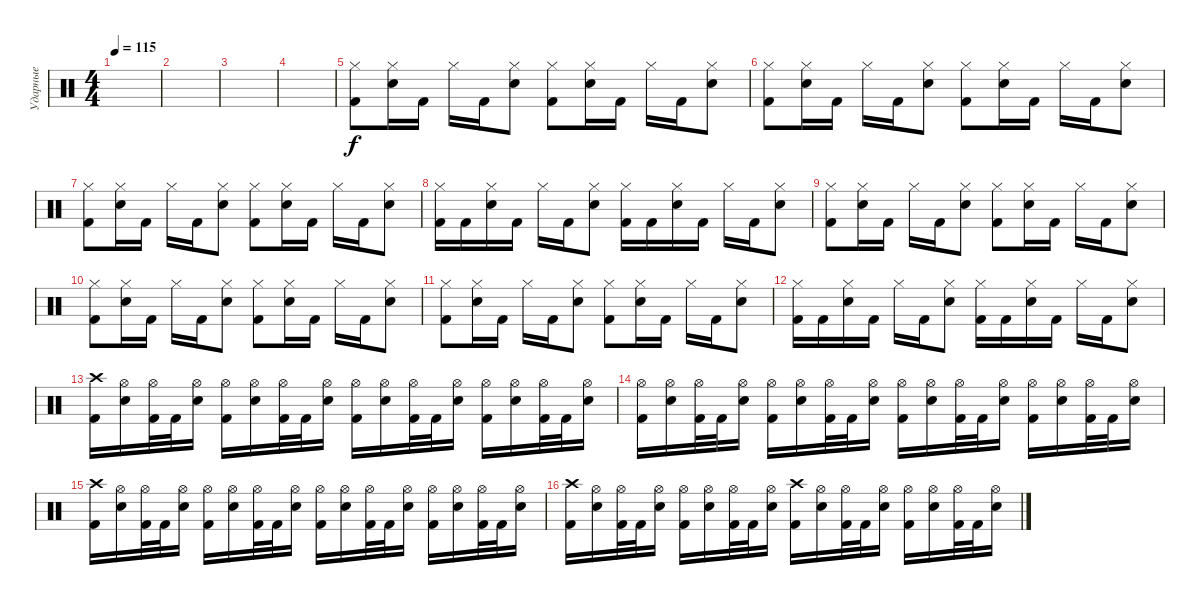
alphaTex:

\track ("Ударные" "Ударные") {instrument percussion}
\staff {score}
\articulation defaults
\ts (4 4)
\tempo 115
\clef neutral
\ks c
|
|
|
|
("Hi-Hat (closed)" "Kick (hit) 2").8 ("Hi-Hat (closed)" "Electric Snare (hit)").16 "Kick (hit) 2".16 "Hi-Hat (closed)".16 "Kick (hit) 2".16 ("Hi-Hat (closed)" "Electric Snare (hit)").8 ("Hi-Hat (closed)" "Kick (hit) 2").8 ("Hi-Hat (closed)" "Electric Snare (hit)").16 "Kick (hit) 2".16 "Hi-Hat (closed)".16 "Kick (hit) 2".16 ("Hi-Hat (closed)" "Electric Snare (hit)").8 |
("Hi-Hat (closed)" "Kick (hit) 2").8 ("Hi-Hat (closed)" "Electric Snare (hit)").16 "Kick (hit) 2".16 "Hi-Hat (closed)".16 "Kick (hit) 2".16 ("Hi-Hat (closed)" "Electric Snare (hit)").8 ("Hi-Hat (closed)" "Kick (hit) 2").8 ("Hi-Hat (closed)" "Electric Snare (hit)").16 "Kick (hit) 2".16 "Hi-Hat (closed)".16 "Kick (hit) 2".16 ("Hi-Hat (closed)" "Electric Snare (hit)").8 |
("Hi-Hat (closed)" "Kick (hit) 2").8 ("Hi-Hat (closed)" "Electric Snare (hit)").16 "Kick (hit) 2".16 "Hi-Hat (closed)".16 "Kick (hit) 2".16 ("Hi-Hat (closed)" "Electric Snare (hit)").8 ("Hi-Hat (closed)" "Kick (hit) 2").8 ("Hi-Hat (closed)" "Electric Snare (hit)").16 "Kick (hit) 2".16 "Hi-Hat (closed)".16 "Kick (hit) 2".16 ("Hi-Hat (closed)" "Electric Snare (hit)").8 |
("Hi-Hat (closed)" "Kick (hit) 2").16 "Kick (hit) 2".16 ("Hi-Hat (closed)" "Electric Snare (hit)").16 "Kick (hit) 2".16 "Hi-Hat (closed)".16 "Kick (hit) 2".16 ("Hi-Hat (closed)" "Electric Snare (hit)").8 ("Hi-Hat (closed)" "Kick (hit) 2").16 "Kick (hit) 2".16 ("Hi-Hat (closed)" "Electric Snare (hit)").16 "Kick (hit) 2".16 "Hi-Hat (closed)".16 "Kick (hit) 2".16 ("Hi-Hat (closed)" "Electric Snare (hit)").8 |
("Hi-Hat (closed)" "Kick (hit) 2").8 ("Hi-Hat (closed)" "Electric Snare (hit)").16 "Kick (hit) 2".16 "Hi-Hat (closed)".16 "Kick (hit) 2".16 ("Hi-Hat (closed)" "Electric Snare (hit)").8 ("Hi-Hat (closed)" "Kick (hit) 2").8 ("Hi-Hat (closed)" "Electric Snare (hit)").16 "Kick (hit) 2".16 "Hi-Hat (closed)".16 "Kick (hit) 2".16 ("Hi-Hat (closed)" "Electric Snare (hit)").8 |
("Hi-Hat (closed)" "Kick (hit) 2").8 ("Hi-Hat (closed)" "Electric Snare (hit)").16 "Kick (hit) 2".16 "Hi-Hat (closed)".16 "Kick (hit) 2".16 ("Hi-Hat (closed)" "Electric Snare (hit)").8 ("Hi-Hat (closed)" "Kick (hit) 2").8 ("Hi-Hat (closed)" "Electric Snare (hit)").16 "Kick (hit) 2".16 "Hi-Hat (closed)".16 "Kick (hit) 2".16 ("Hi-Hat (closed)" "Electric Snare (hit)").8 |
("Hi-Hat (closed)" "Kick (hit) 2").8 ("Hi-Hat (closed)" "Electric Snare (hit)").16 "Kick (hit) 2".16 "Hi-Hat (closed)".16 "Kick (hit) 2".16 ("Hi-Hat (closed)" "Electric Snare (hit)").8 ("Hi-Hat (closed)" "Kick (hit) 2").8 ("Hi-Hat (closed)" "Electric Snare (hit)").16 "Kick (hit) 2".16 "Hi-Hat (closed)".16 "Kick (hit) 2".16 ("Hi-Hat (closed)" "Electric Snare (hit)").8 |
("Hi-Hat (closed)" "Kick (hit) 2").16 "Kick (hit) 2".16 ("Hi-Hat (closed)" "Electric Snare (hit)").16 "Kick (hit) 2".16 "Hi-Hat (closed)".16 "Kick (hit) 2".16 ("Hi-Hat (closed)" "Electric Snare (hit)").8 ("Hi-Hat (closed)" "Kick (hit) 2").16 "Kick (hit) 2".16 ("Hi-Hat (closed)" "Electric Snare (hit)").16 "Kick (hit) 2".16 "Hi-Hat (closed)".16 "Kick (hit) 2".16 ("Hi-Hat (closed)" "Electric Snare (hit)").8 |
("Crash high (hit)" "Kick (hit) 2").16 ("Hi-Hat (open)" "Electric Snare (hit)").16 ("Hi-Hat (open)" "Kick (hit) 2").32 "Kick (hit) 2".32 ("Hi-Hat (open)" "Electric Snare (hit)").16 ("Hi-Hat (open)" "Kick (hit) 2").16 ("Hi-Hat (open)" "Electric Snare (hit)").16 ("Hi-Hat (open)" "Kick (hit) 2").32 "Kick (hit) 2".32 ("Hi-Hat (open)" "Electric Snare (hit)").16 ("Hi-Hat (open)" "Kick (hit) 2").16 ("Hi-Hat (open)" "Electric Snare (hit)").16 ("Hi-Hat (open)" "Kick (hit) 2").32 "Kick (hit) 2".32 ("Hi-Hat (open)" "Electric Snare (hit)").16 ("Hi-Hat (open)" "Kick (hit) 2").16 ("Hi-Hat (open)" "Electric Snare (hit)").16 ("Hi-Hat (open)" "Kick (hit) 2").32 "Kick (hit) 2".32 ("Hi-Hat (open)" "Electric Snare (hit)").16 |
("Hi-Hat (open)" "Kick (hit) 2").16 ("Hi-Hat (open)" "Electric Snare (hit)").16 ("Hi-Hat (open)" "Kick (hit) 2").32 "Kick (hit) 2".32 ("Hi-Hat (open)" "Electric Snare (hit)").16 ("Hi-Hat (open)" "Kick (hit) 2").16 ("Hi-Hat (open)" "Electric Snare (hit)").16 ("Hi-Hat (open)" "Kick (hit) 2").32 "Kick (hit) 2".32 ("Hi-Hat (open)" "Electric Snare (hit)").16 ("Hi-Hat (open)" "Kick (hit) 2").16 ("Hi-Hat (open)" "Electric Snare (hit)").16 ("Hi-Hat (open)" "Kick (hit) 2").32 "Kick (hit) 2".32 ("Hi-Hat (open)" "Electric Snare (hit)").16 ("Hi-Hat (open)" "Kick (hit) 2").16 ("Hi-Hat (open)" "Electric Snare (hit)").16 ("Hi-Hat (open)" "Kick (hit) 2").32 "Kick (hit) 2".32 ("Hi-Hat (open)" "Electric Snare (hit)").16 |
("Crash high (hit)" "Kick (hit) 2").16 ("Hi-Hat (open)" "Electric Snare (hit)").16 ("Hi-Hat (open)" "Kick (hit) 2").32 "Kick (hit) 2".32 ("Hi-Hat (open)" "Electric Snare (hit)").16 ("Hi-Hat (open)" "Kick (hit) 2").16 ("Hi-Hat (open)" "Electric Snare (hit)").16 ("Hi-Hat (open)" "Kick (hit) 2").32 "Kick (hit) 2".32 ("Hi-Hat (open)" "Electric Snare (hit)").16 ("Hi-Hat (open)" "Kick (hit) 2").16 ("Hi-Hat (open)" "Electric Snare (hit)").16 ("Hi-Hat (open)" "Kick (hit) 2").32 "Kick (hit) 2".32 ("Hi-Hat (open)" "Electric Snare (hit)").16 ("Hi-Hat (open)" "Kick (hit) 2").16 ("Hi-Hat (open)" "Electric Snare (hit)").16 ("Hi-Hat (open)" "Kick (hit) 2").32 "Kick (hit) 2".32 ("Hi-Hat (open)" "Electric Snare (hit)").16 |
("Crash high (hit)" "Kick (hit) 2").16 ("Hi-Hat (open)" "Electric Snare (hit)").16 ("Hi-Hat (open)" "Kick (hit) 2").32 "Kick (hit) 2".32 ("Hi-Hat (open)" "Electric Snare (hit)").16 ("Hi-Hat (open)" "Kick (hit) 2").16 ("Hi-Hat (open)" "Electric Snare (hit)").16 ("Hi-Hat (open)" "Kick (hit) 2").32 "Kick (hit) 2".32 ("Hi-Hat (open)" "Electric Snare (hit)").16 ("Crash high (hit)" "Kick (hit) 2").16 ("Hi-Hat (open)" "Electric Snare (hit)").16 ("Hi-Hat (open)" "Kick (hit) 2").32 "Kick (hit) 2".32 ("Hi-Hat (open)" "Electric Snare (hit)").16 ("Hi-Hat (open)" "Kick (hit) 2").16 ("Hi-Hat (open)" "Electric Snare (hit)").16 ("Hi-Hat (open)" "Kick (hit) 2").32 "Kick (hit) 2".32 ("Hi-Hat (open)" "Electric Snare (hit)").16
